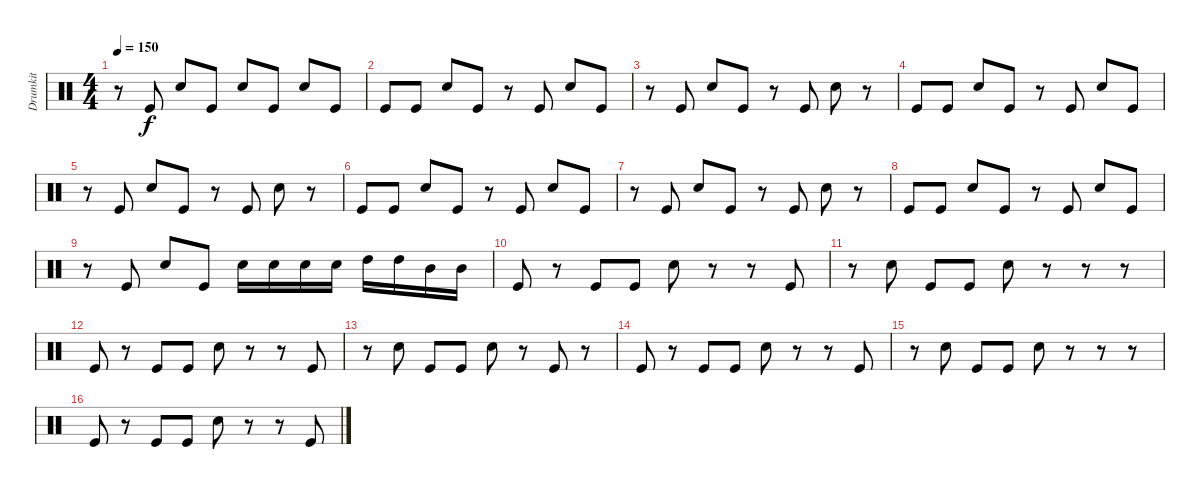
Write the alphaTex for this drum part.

\track ("Drumkit" "Drumkit") {instrument percussion}
\staff {score}
\articulation defaults
\ts (4 4)
\tempo 150
\clef neutral
\ks c
r.8{dy f} "Kick (hit)".8 "Snare (hit) 2".8 "Kick (hit)".8 "Snare (hit) 2".8 "Kick (hit)".8 "Snare (hit) 2".8 "Kick (hit)".8 |
"Kick (hit)".8 "Kick (hit)".8 "Snare (hit) 2".8 "Kick (hit)".8 r.8 "Kick (hit)".8 "Snare (hit) 2".8 "Kick (hit)".8 |
r.8 "Kick (hit)".8 "Snare (hit) 2".8 "Kick (hit)".8 r.8 "Kick (hit)".8 "Snare (hit) 2".8 r.8 |
"Kick (hit)".8 "Kick (hit)".8 "Snare (hit) 2".8 "Kick (hit)".8 r.8 "Kick (hit)".8 "Snare (hit) 2".8 "Kick (hit)".8 |
r.8 "Kick (hit)".8 "Snare (hit) 2".8 "Kick (hit)".8 r.8 "Kick (hit)".8 "Snare (hit) 2".8 r.8 |
"Kick (hit)".8 "Kick (hit)".8 "Snare (hit) 2".8 "Kick (hit)".8 r.8 "Kick (hit)".8 "Snare (hit) 2".8 "Kick (hit)".8 |
r.8 "Kick (hit)".8 "Snare (hit) 2".8 "Kick (hit)".8 r.8 "Kick (hit)".8 "Snare (hit) 2".8 r.8 |
"Kick (hit)".8 "Kick (hit)".8 "Snare (hit) 2".8 "Kick (hit)".8 r.8 "Kick (hit)".8 "Snare (hit) 2".8 "Kick (hit)".8 |
r.8 "Kick (hit)".8 "Snare (hit) 2".8 "Kick (hit)".8 "Snare (hit) 2".16 "Snare (hit) 2".16 "Snare (hit) 2".16 "Snare (hit) 2".16 "High Tom (hit)".16 "High Tom (hit)".16 "Mid Tom (hit)".16 "Mid Tom (hit)".16 |
"Kick (hit)".8 r.8 "Kick (hit)".8 "Kick (hit)".8 "Snare (hit) 2".8 r.8 r.8 "Kick (hit)".8 |
r.8 "Snare (hit) 2".8 "Kick (hit)".8 "Kick (hit)".8 "Snare (hit) 2".8 r.8 r.8 r.8 |
"Kick (hit)".8 r.8 "Kick (hit)".8 "Kick (hit)".8 "Snare (hit) 2".8 r.8 r.8 "Kick (hit)".8 |
r.8 "Snare (hit) 2".8 "Kick (hit)".8 "Kick (hit)".8 "Snare (hit) 2".8 r.8 "Kick (hit)".8 r.8 |
"Kick (hit)".8 r.8 "Kick (hit)".8 "Kick (hit)".8 "Snare (hit) 2".8 r.8 r.8 "Kick (hit)".8 |
r.8 "Snare (hit) 2".8 "Kick (hit)".8 "Kick (hit)".8 "Snare (hit) 2".8 r.8 r.8 r.8 |
"Kick (hit)".8 r.8 "Kick (hit)".8 "Kick (hit)".8 "Snare (hit) 2".8 r.8 r.8 "Kick (hit)".8
